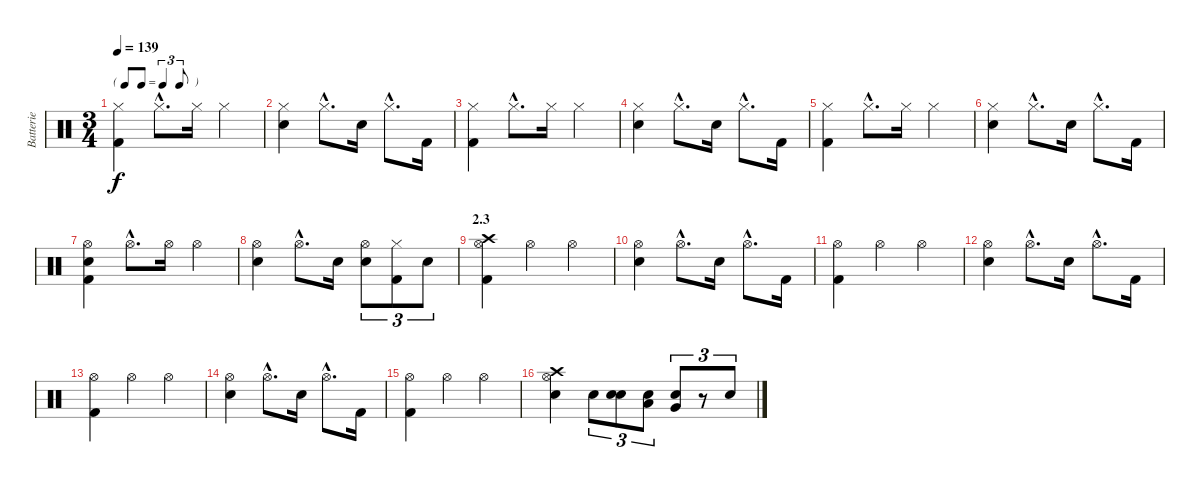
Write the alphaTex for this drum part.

\track ("Batterie" "Batterie") {instrument percussion}
\staff {score}
\articulation defaults
\ts (3 4)
\tf triplet8th
\tempo 139
\clef neutral
\ks c
("Hi-Hat (closed)" "Kick (hit) 2").4{dy f} "Hi-Hat (closed)"{hac}.8{d} "Hi-Hat (closed)".16 "Hi-Hat (closed)".4 |
("Hi-Hat (closed)" "Snare (hit) 2").4 "Hi-Hat (closed)"{hac}.8{d} "Snare (hit) 2".16 "Hi-Hat (closed)"{hac}.8{d} "Kick (hit) 2".16 |
("Hi-Hat (closed)" "Kick (hit) 2").4 "Hi-Hat (closed)"{hac}.8{d} "Hi-Hat (closed)".16 "Hi-Hat (closed)".4 |
("Hi-Hat (closed)" "Snare (hit) 2").4 "Hi-Hat (closed)"{hac}.8{d} "Snare (hit) 2".16 "Hi-Hat (closed)"{hac}.8{d} "Kick (hit) 2".16 |
("Hi-Hat (closed)" "Kick (hit) 2").4 "Hi-Hat (closed)"{hac}.8{d} "Hi-Hat (closed)".16 "Hi-Hat (closed)".4 |
("Hi-Hat (closed)" "Snare (hit) 2").4 "Hi-Hat (closed)"{hac}.8{d} "Snare (hit) 2".16 "Hi-Hat (closed)"{hac}.8{d} "Kick (hit) 2".16 |
("Hand Clap (hit)" "Hi-Hat (open)" "Kick (hit) 2").4 "Hi-Hat (open)"{hac}.8{d} "Hi-Hat (open)".16 "Hi-Hat (open)".4 |
("Hi-Hat (open)" "Snare (hit) 2").4 "Hi-Hat (open)"{hac}.8{d} "Snare (hit) 2".16 ("Hi-Hat (open)" "Snare (hit) 2").8{tu (3 2)} ("Hi-Hat (closed)" "Kick (hit) 2").8{tu (3 2)} "Snare (hit) 2".8{tu (3 2)} |
\section ("" "2.3")
("Crash high (hit)" "Hi-Hat (open)" "Kick (hit) 2").4 "Hi-Hat (open)".4 "Hi-Hat (open)".4 |
("Hi-Hat (open)" "Snare (hit) 2").4 "Hi-Hat (open)"{hac}.8{d} "Snare (hit) 2".16 "Hi-Hat (open)"{hac}.8{d} "Kick (hit) 2".16 |
("Hi-Hat (open)" "Kick (hit) 2").4 "Hi-Hat (open)".4 "Hi-Hat (open)".4 |
("Hi-Hat (open)" "Snare (hit) 2").4 "Hi-Hat (open)"{hac}.8{d} "Snare (hit) 2".16 "Hi-Hat (open)"{hac}.8{d} "Kick (hit) 2".16 |
("Hi-Hat (open)" "Kick (hit) 2").4 "Hi-Hat (open)".4 "Hi-Hat (open)".4 |
("Hi-Hat (open)" "Snare (hit) 2").4 "Hi-Hat (open)"{hac}.8{d} "Snare (hit) 2".16 "Hi-Hat (open)"{hac}.8{d} "Kick (hit) 2".16 |
("Hi-Hat (open)" "Kick (hit) 2").4 "Hi-Hat (open)".4 "Hi-Hat (open)".4 |
("Crash high (hit)" "Hi-Hat (open)" "Snare (hit) 2").4 "Snare (hit) 2".8{tu (3 2)} ("Electric Snare (hit)" "Snare (hit) 2").8{tu (3 2)} ("Low Floor Tom (hit)" "Snare (hit) 2").8{tu (3 2)} ("Very Low Tom (hit)" "Snare (hit) 2").8{tu (3 2)} r.8{tu (3 2)} "Snare (hit) 2".8{tu (3 2)}
